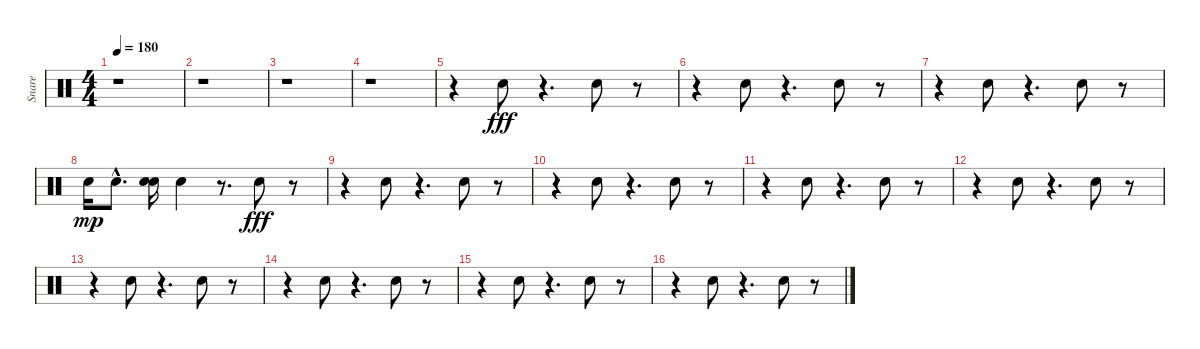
\track ("Snare" "Snare") {instrument percussion}
\staff {score}
\articulation defaults
\ts (4 4)
\tempo 180
\clef neutral
\ks c
r.1{dy fff} |
r.1 |
r.1 |
r.1 |
r.4 "Electric Snare (hit)".8 r.4{d} "Electric Snare (hit)".8 r.8 |
r.4 "Electric Snare (hit)".8 r.4{d} "Electric Snare (hit)".8 r.8 |
r.4 "Electric Snare (hit)".8 r.4{d} "Electric Snare (hit)".8 r.8 |
"Electric Snare (hit)".16{dy mp} "Electric Snare (hit)"{hac}.8{d} ("Electric Snare (hit)" "Electric Snare (hit)").16 "Electric Snare (hit)".4 r.8{d} "Electric Snare (hit)".8{dy fff} r.8 |
r.4 "Electric Snare (hit)".8 r.4{d} "Electric Snare (hit)".8 r.8 |
r.4 "Electric Snare (hit)".8 r.4{d} "Electric Snare (hit)".8 r.8 |
r.4 "Electric Snare (hit)".8 r.4{d} "Electric Snare (hit)".8 r.8 |
r.4 "Electric Snare (hit)".8 r.4{d} "Electric Snare (hit)".8 r.8 |
r.4 "Electric Snare (hit)".8 r.4{d} "Electric Snare (hit)".8 r.8 |
r.4 "Electric Snare (hit)".8 r.4{d} "Electric Snare (hit)".8 r.8 |
r.4 "Electric Snare (hit)".8 r.4{d} "Electric Snare (hit)".8 r.8 |
r.4 "Electric Snare (hit)".8 r.4{d} "Electric Snare (hit)".8 r.8
